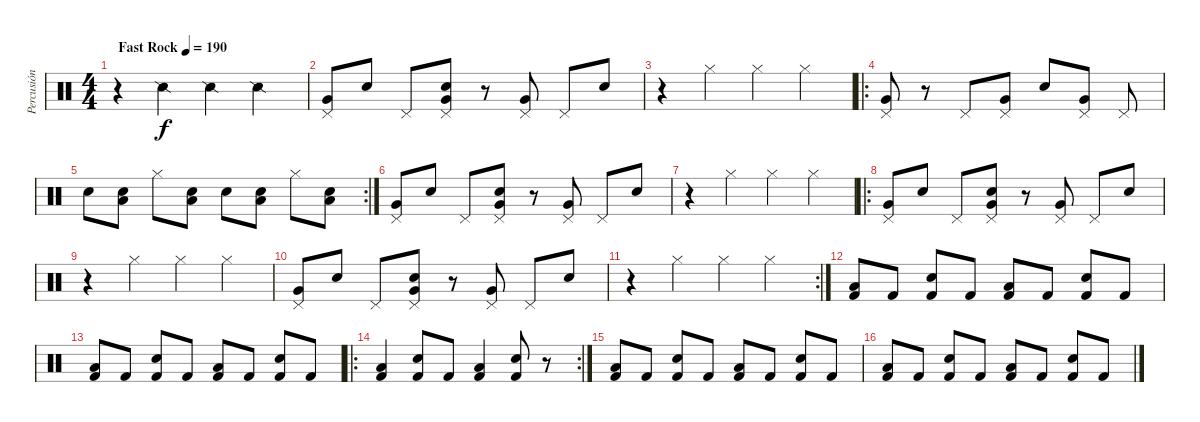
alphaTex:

\track ("Percusión" "Percusión") {instrument percussion}
\staff {score}
\articulation defaults
\ts (4 4)
\tempo (190 "Fast Rock")
\clef neutral
\ks c
r.4{dy f} "Snare (side stick) 2".4 "Snare (side stick) 2".4 "Snare (side stick) 2".4 |
("Pedal Hi-Hat (hit)" "Very Low Tom (hit)").8 "Snare (hit) 2".8 "Pedal Hi-Hat (hit)".8 ("Snare (hit) 2" "Pedal Hi-Hat (hit)" "Very Low Tom (hit)").8 r.8 ("Pedal Hi-Hat (hit)" "Very Low Tom (hit)").8 "Pedal Hi-Hat (hit)".8 "Snare (hit) 2".8 |
r.4 "Hi-Hat (closed)".4 "Hi-Hat (closed)".4 "Hi-Hat (closed)".4 |
\ro
("Pedal Hi-Hat (hit)" "Very Low Tom (hit)").8 r.8 "Pedal Hi-Hat (hit)".8 ("Pedal Hi-Hat (hit)" "Very Low Tom (hit)").8 "Snare (hit) 2".8 ("Pedal Hi-Hat (hit)" "Very Low Tom (hit)").8 "Pedal Hi-Hat (hit)".8 |
\rc 2 "Snare (hit) 2".8
("Snare (hit) 2" "Low Floor Tom (hit)").8 "Hi-Hat (closed)".8 ("Snare (hit) 2" "Low Floor Tom (hit)").8 "Snare (hit) 2".8 ("Snare (hit) 2" "Low Floor Tom (hit)").8 "Hi-Hat (closed)".8 ("Snare (hit) 2" "Low Floor Tom (hit)").8 |
("Pedal Hi-Hat (hit)" "Very Low Tom (hit)").8 "Snare (hit) 2".8 "Pedal Hi-Hat (hit)".8 ("Snare (hit) 2" "Pedal Hi-Hat (hit)" "Very Low Tom (hit)").8 r.8 ("Pedal Hi-Hat (hit)" "Very Low Tom (hit)").8 "Pedal Hi-Hat (hit)".8 "Snare (hit) 2".8 |
r.4 "Hi-Hat (closed)".4 "Hi-Hat (closed)".4 "Hi-Hat (closed)".4 |
\ro
("Pedal Hi-Hat (hit)" "Very Low Tom (hit)").8 "Snare (hit) 2".8 "Pedal Hi-Hat (hit)".8 ("Snare (hit) 2" "Pedal Hi-Hat (hit)" "Very Low Tom (hit)").8 r.8 ("Pedal Hi-Hat (hit)" "Very Low Tom (hit)").8 "Pedal Hi-Hat (hit)".8 "Snare (hit) 2".8 |
r.4 "Hi-Hat (closed)".4 "Hi-Hat (closed)".4 "Hi-Hat (closed)".4 |
("Pedal Hi-Hat (hit)" "Very Low Tom (hit)").8 "Snare (hit) 2".8 "Pedal Hi-Hat (hit)".8 ("Snare (hit) 2" "Pedal Hi-Hat (hit)" "Very Low Tom (hit)").8 r.8 ("Pedal Hi-Hat (hit)" "Very Low Tom (hit)").8 "Pedal Hi-Hat (hit)".8 "Snare (hit) 2".8 |
\rc 2
r.4 "Hi-Hat (closed)".4 "Hi-Hat (closed)".4 "Hi-Hat (closed)".4 |
("Low Tom (hit)" "Kick (hit) 2").8 "Kick (hit) 2".8 ("Snare (hit) 2" "Kick (hit) 2").8 "Kick (hit) 2".8 ("Low Tom (hit)" "Kick (hit) 2").8 "Kick (hit) 2".8 ("Snare (hit) 2" "Kick (hit) 2").8 "Kick (hit) 2".8 |
("Low Tom (hit)" "Kick (hit) 2").8 "Kick (hit) 2".8 ("Snare (hit) 2" "Kick (hit) 2").8 "Kick (hit) 2".8 ("Low Tom (hit)" "Kick (hit) 2").8 "Kick (hit) 2".8 ("Snare (hit) 2" "Kick (hit) 2").8 "Kick (hit) 2".8 |
\ro
\rc 2
("Low Tom (hit)" "Kick (hit) 2").4 ("Snare (hit) 2" "Kick (hit) 2").8 "Kick (hit) 2".8 ("Low Tom (hit)" "Kick (hit) 2").4 ("Snare (hit) 2" "Kick (hit) 2").8 r.8 |
("Low Tom (hit)" "Kick (hit) 2").8 "Kick (hit) 2".8 ("Snare (hit) 2" "Kick (hit) 2").8 "Kick (hit) 2".8 ("Low Tom (hit)" "Kick (hit) 2").8 "Kick (hit) 2".8 ("Snare (hit) 2" "Kick (hit) 2").8 "Kick (hit) 2".8 |
("Low Tom (hit)" "Kick (hit) 2").8 "Kick (hit) 2".8 ("Snare (hit) 2" "Kick (hit) 2").8 "Kick (hit) 2".8 ("Low Tom (hit)" "Kick (hit) 2").8 "Kick (hit) 2".8 ("Snare (hit) 2" "Kick (hit) 2").8 "Kick (hit) 2".8
